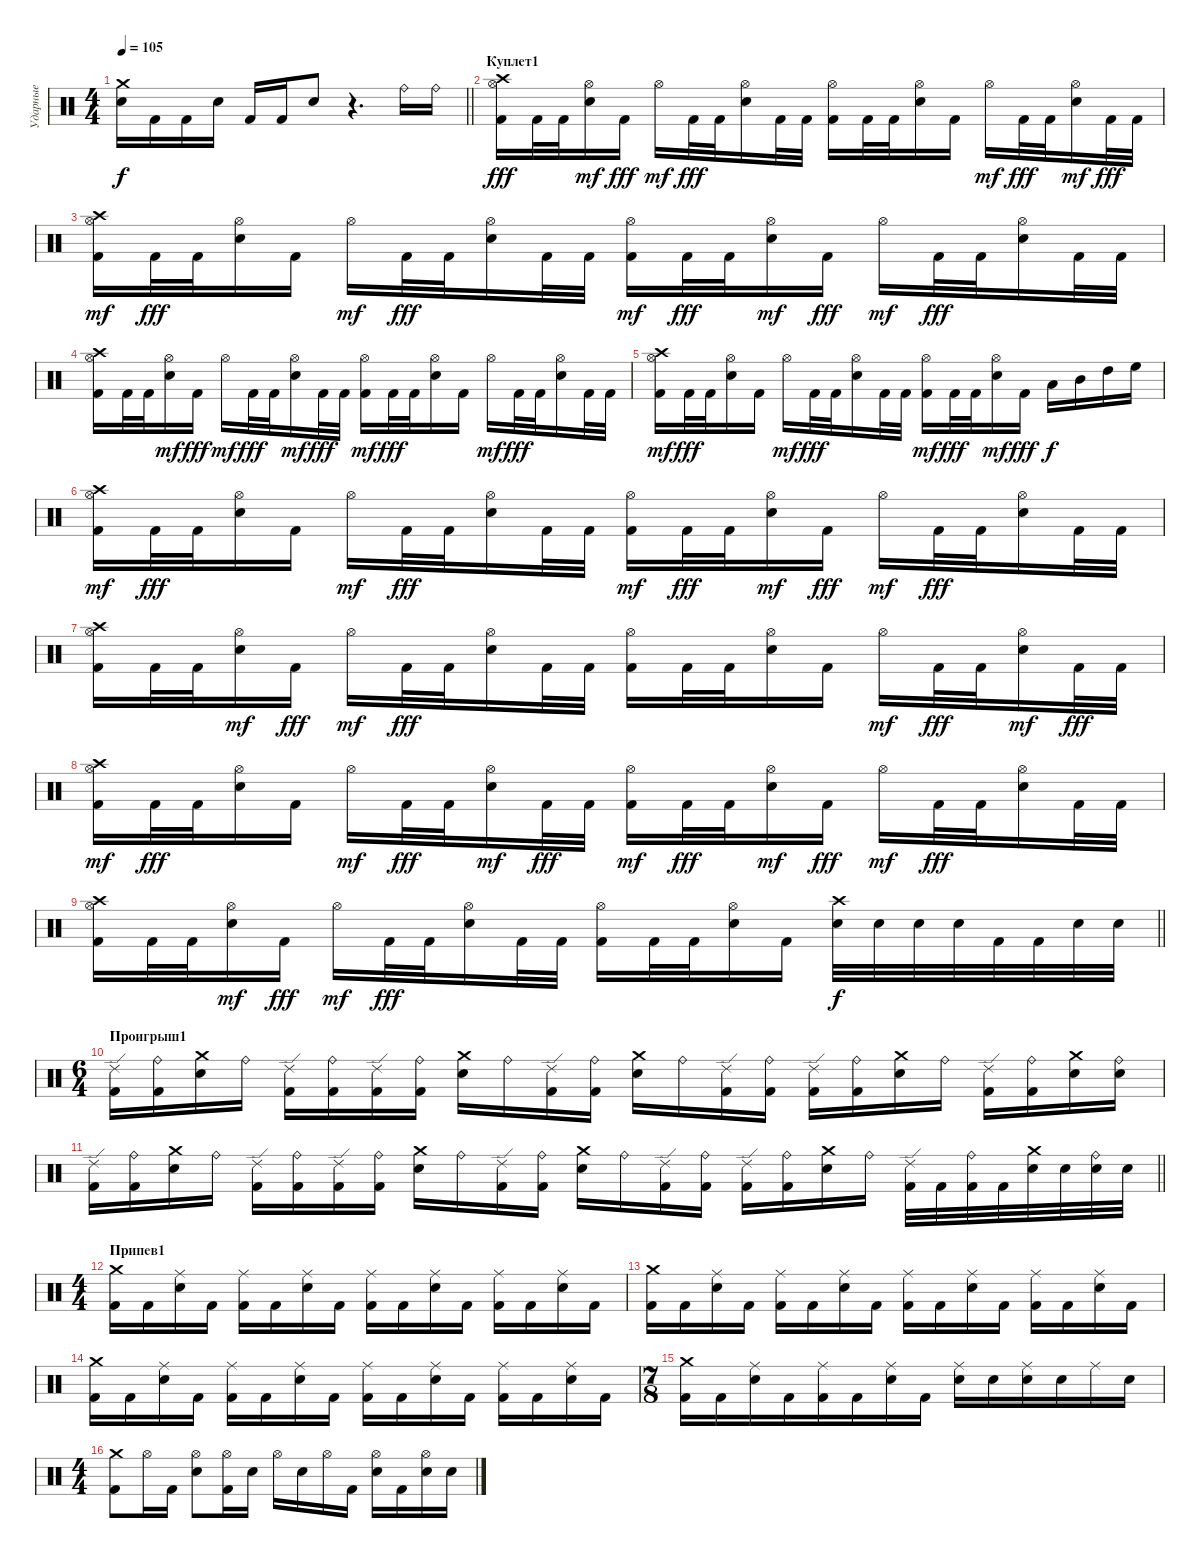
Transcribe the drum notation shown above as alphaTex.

\track ("Ударные" "Ударные") {instrument percussion}
\staff {score}
\articulation defaults
\ts (4 4)
\tempo 105
\clef neutral
\barLineRight lightlight
\ks c
("Crash medium (hit)" "Electric Snare (hit)").16{dy f} "Kick (hit) 2".16 "Kick (hit) 2".16 "Electric Snare (hit)".16 "Kick (hit) 2".16 "Kick (hit) 2".16 "Electric Snare (hit)".8 r.4{d} "Ride (bell)".16 "Ride (bell)".16 |
\section ("" "Куплет1")
("Hi-Hat (open)" "Crash high (hit)" "Kick (hit) 2").16{dy fff} "Kick (hit) 2".32 "Kick (hit) 2".32 ("Electric Snare (hit)" "Hi-Hat (open)").16{dy mf} "Kick (hit) 2".16{dy fff} "Hi-Hat (open)".16{dy mf} "Kick (hit) 2".32{dy fff} "Kick (hit) 2".32 ("Hi-Hat (open)" "Electric Snare (hit)").16 "Kick (hit) 2".32 "Kick (hit) 2".32 ("Hi-Hat (open)" "Kick (hit) 2").16 "Kick (hit) 2".32 "Kick (hit) 2".32 ("Hi-Hat (open)" "Electric Snare (hit)").16 "Kick (hit) 2".16 "Hi-Hat (open)".16{dy mf} "Kick (hit) 2".32{dy fff} "Kick (hit) 2".32 ("Electric Snare (hit)" "Hi-Hat (open)").16{dy mf} "Kick (hit) 2".32{dy fff} "Kick (hit) 2".32 |
("Kick (hit) 2" "Crash high (hit)" "Hi-Hat (open)").16{dy mf} "Kick (hit) 2".32{dy fff} "Kick (hit) 2".32 ("Hi-Hat (open)" "Electric Snare (hit)").16 "Kick (hit) 2".16 "Hi-Hat (open)".16{dy mf} "Kick (hit) 2".32{dy fff} "Kick (hit) 2".32 ("Hi-Hat (open)" "Electric Snare (hit)").16 "Kick (hit) 2".32 "Kick (hit) 2".32 ("Kick (hit) 2" "Hi-Hat (open)").16{dy mf} "Kick (hit) 2".32{dy fff} "Kick (hit) 2".32 ("Electric Snare (hit)" "Hi-Hat (open)").16{dy mf} "Kick (hit) 2".16{dy fff} "Hi-Hat (open)".16{dy mf} "Kick (hit) 2".32{dy fff} "Kick (hit) 2".32 ("Hi-Hat (open)" "Electric Snare (hit)").16 "Kick (hit) 2".32 "Kick (hit) 2".32 |
("Hi-Hat (open)" "Crash high (hit)" "Kick (hit) 2").16 "Kick (hit) 2".32 "Kick (hit) 2".32 ("Electric Snare (hit)" "Hi-Hat (open)").16{dy mf} "Kick (hit) 2".16{dy fff} "Hi-Hat (open)".16{dy mf} "Kick (hit) 2".32{dy fff} "Kick (hit) 2".32 ("Electric Snare (hit)" "Hi-Hat (open)").16{dy mf} "Kick (hit) 2".32{dy fff} "Kick (hit) 2".32 ("Kick (hit) 2" "Hi-Hat (open)").16{dy mf} "Kick (hit) 2".32{dy fff} "Kick (hit) 2".32 ("Hi-Hat (open)" "Electric Snare (hit)").16 "Kick (hit) 2".16 "Hi-Hat (open)".16{dy mf} "Kick (hit) 2".32{dy fff} "Kick (hit) 2".32 ("Hi-Hat (open)" "Electric Snare (hit)").16 "Kick (hit) 2".32 "Kick (hit) 2".32 |
("Kick (hit) 2" "Crash high (hit)" "Hi-Hat (open)").16{dy mf} "Kick (hit) 2".32{dy fff} "Kick (hit) 2".32 ("Hi-Hat (open)" "Electric Snare (hit)").16 "Kick (hit) 2".16 "Hi-Hat (open)".16{dy mf} "Kick (hit) 2".32{dy fff} "Kick (hit) 2".32 ("Hi-Hat (open)" "Electric Snare (hit)").16 "Kick (hit) 2".32 "Kick (hit) 2".32 ("Kick (hit) 2" "Hi-Hat (open)").16{dy mf} "Kick (hit) 2".32{dy fff} "Kick (hit) 2".32 ("Electric Snare (hit)" "Hi-Hat (open)").16{dy mf} "Kick (hit) 2".16{dy fff} "Low Tom (hit)".16{dy f} "Mid Tom (hit)".16 "High Tom (hit)".16 "High Floor Tom (hit)".16 |
("Kick (hit) 2" "Crash high (hit)" "Hi-Hat (open)").16{dy mf} "Kick (hit) 2".32{dy fff} "Kick (hit) 2".32 ("Hi-Hat (open)" "Electric Snare (hit)").16 "Kick (hit) 2".16 "Hi-Hat (open)".16{dy mf} "Kick (hit) 2".32{dy fff} "Kick (hit) 2".32 ("Hi-Hat (open)" "Electric Snare (hit)").16 "Kick (hit) 2".32 "Kick (hit) 2".32 ("Kick (hit) 2" "Hi-Hat (open)").16{dy mf} "Kick (hit) 2".32{dy fff} "Kick (hit) 2".32 ("Electric Snare (hit)" "Hi-Hat (open)").16{dy mf} "Kick (hit) 2".16{dy fff} "Hi-Hat (open)".16{dy mf} "Kick (hit) 2".32{dy fff} "Kick (hit) 2".32 ("Hi-Hat (open)" "Electric Snare (hit)").16 "Kick (hit) 2".32 "Kick (hit) 2".32 |
("Hi-Hat (open)" "Crash high (hit)" "Kick (hit) 2").16 "Kick (hit) 2".32 "Kick (hit) 2".32 ("Electric Snare (hit)" "Hi-Hat (open)").16{dy mf} "Kick (hit) 2".16{dy fff} "Hi-Hat (open)".16{dy mf} "Kick (hit) 2".32{dy fff} "Kick (hit) 2".32 ("Hi-Hat (open)" "Electric Snare (hit)").16 "Kick (hit) 2".32 "Kick (hit) 2".32 ("Hi-Hat (open)" "Kick (hit) 2").16 "Kick (hit) 2".32 "Kick (hit) 2".32 ("Hi-Hat (open)" "Electric Snare (hit)").16 "Kick (hit) 2".16 "Hi-Hat (open)".16{dy mf} "Kick (hit) 2".32{dy fff} "Kick (hit) 2".32 ("Electric Snare (hit)" "Hi-Hat (open)").16{dy mf} "Kick (hit) 2".32{dy fff} "Kick (hit) 2".32 |
("Kick (hit) 2" "Hi-Hat (open)" "Crash high (hit)").16{dy mf} "Kick (hit) 2".32{dy fff} "Kick (hit) 2".32 ("Hi-Hat (open)" "Electric Snare (hit)").16 "Kick (hit) 2".16 "Hi-Hat (open)".16{dy mf} "Kick (hit) 2".32{dy fff} "Kick (hit) 2".32 ("Electric Snare (hit)" "Hi-Hat (open)").16{dy mf} "Kick (hit) 2".32{dy fff} "Kick (hit) 2".32 ("Kick (hit) 2" "Hi-Hat (open)").16{dy mf} "Kick (hit) 2".32{dy fff} "Kick (hit) 2".32 ("Electric Snare (hit)" "Hi-Hat (open)").16{dy mf} "Kick (hit) 2".16{dy fff} "Hi-Hat (open)".16{dy mf} "Kick (hit) 2".32{dy fff} "Kick (hit) 2".32 ("Hi-Hat (open)" "Electric Snare (hit)").16 "Kick (hit) 2".32 "Kick (hit) 2".32 |
\barLineRight lightlight
("Hi-Hat (open)" "Crash high (hit)" "Kick (hit) 2").16 "Kick (hit) 2".32 "Kick (hit) 2".32 ("Electric Snare (hit)" "Hi-Hat (open)").16{dy mf} "Kick (hit) 2".16{dy fff} "Hi-Hat (open)".16{dy mf} "Kick (hit) 2".32{dy fff} "Kick (hit) 2".32 ("Hi-Hat (open)" "Electric Snare (hit)").16 "Kick (hit) 2".32 "Kick (hit) 2".32 ("Hi-Hat (open)" "Kick (hit) 2").16 "Kick (hit) 2".32 "Kick (hit) 2".32 ("Hi-Hat (open)" "Electric Snare (hit)").16 "Kick (hit) 2".16 ("Crash high (hit)" "Electric Snare (hit)").32{dy f} "Electric Snare (hit)".32 "Electric Snare (hit)".32 "Electric Snare (hit)".32 "Kick (hit) 2".32 "Kick (hit) 2".32 "Electric Snare (hit)".32 "Electric Snare (hit)".32 |
\ts (6 4)
\section ("" "Проигрыш1")
("Ride (edge) 2" "Kick (hit) 2").16 ("Ride (bell)" "Kick (hit) 2").16 ("Crash medium (hit)" "Electric Snare (hit)").16 "Ride (bell)".16 ("Ride (edge) 2" "Kick (hit) 2").16 ("Ride (bell)" "Kick (hit) 2").16 ("Ride (edge) 2" "Kick (hit) 2").16 ("Ride (bell)" "Kick (hit) 2").16 ("Crash medium (hit)" "Electric Snare (hit)").16 "Ride (bell)".16 ("Ride (edge) 2" "Kick (hit) 2").16 ("Ride (bell)" "Kick (hit) 2").16 ("Crash medium (hit)" "Electric Snare (hit)").16 "Ride (bell)".16 ("Ride (edge) 2" "Kick (hit) 2").16 ("Ride (bell)" "Kick (hit) 2").16 ("Ride (edge) 2" "Kick (hit) 2").16 ("Ride (bell)" "Kick (hit) 2").16 ("Crash medium (hit)" "Electric Snare (hit)").16 "Ride (bell)".16 ("Ride (edge) 2" "Kick (hit) 2").16 ("Ride (bell)" "Kick (hit) 2").16 ("Crash medium (hit)" "Electric Snare (hit)").16 ("Ride (bell)" "Electric Snare (hit)").16 |
\barLineRight lightlight
("Ride (edge) 2" "Kick (hit) 2").16 ("Ride (bell)" "Kick (hit) 2").16 ("Crash medium (hit)" "Electric Snare (hit)").16 "Ride (bell)".16 ("Ride (edge) 2" "Kick (hit) 2").16 ("Ride (bell)" "Kick (hit) 2").16 ("Ride (edge) 2" "Kick (hit) 2").16 ("Ride (bell)" "Kick (hit) 2").16 ("Crash medium (hit)" "Electric Snare (hit)").16 "Ride (bell)".16 ("Ride (edge) 2" "Kick (hit) 2").16 ("Ride (bell)" "Kick (hit) 2").16 ("Crash medium (hit)" "Electric Snare (hit)").16 "Ride (bell)".16 ("Ride (edge) 2" "Kick (hit) 2").16 ("Ride (bell)" "Kick (hit) 2").16 ("Ride (edge) 2" "Kick (hit) 2").16 ("Ride (bell)" "Kick (hit) 2").16 ("Crash medium (hit)" "Electric Snare (hit)").16 "Ride (bell)".16 ("Ride (edge) 2" "Kick (hit) 2").32 "Kick (hit) 2".32 ("Ride (bell)" "Kick (hit) 2").32 "Kick (hit) 2".32 ("Crash medium (hit)" "Electric Snare (hit)").32 "Electric Snare (hit)".32 ("Ride (bell)" "Electric Snare (hit)").32 "Electric Snare (hit)".32 |
\ts (4 4)
\section ("" "Припев1")
("Crash medium (hit)" "Kick (hit) 2").16 "Kick (hit) 2".16 ("Ride (middle)" "Electric Snare (hit)").16 "Kick (hit) 2".16 ("Ride (middle)" "Kick (hit) 2").16 "Kick (hit) 2".16 ("Ride (middle)" "Electric Snare (hit)").16 "Kick (hit) 2".16 ("Ride (middle)" "Kick (hit) 2").16 "Kick (hit) 2".16 ("Ride (middle)" "Electric Snare (hit)").16 "Kick (hit) 2".16 ("Ride (middle)" "Kick (hit) 2").16 "Kick (hit) 2".16 ("Ride (middle)" "Electric Snare (hit)").16 "Kick (hit) 2".16 |
("Crash medium (hit)" "Kick (hit) 2").16 "Kick (hit) 2".16 ("Ride (middle)" "Electric Snare (hit)").16 "Kick (hit) 2".16 ("Ride (middle)" "Kick (hit) 2").16 "Kick (hit) 2".16 ("Ride (middle)" "Electric Snare (hit)").16 "Kick (hit) 2".16 ("Ride (middle)" "Kick (hit) 2").16 "Kick (hit) 2".16 ("Ride (middle)" "Electric Snare (hit)").16 "Kick (hit) 2".16 ("Ride (middle)" "Kick (hit) 2").16 "Kick (hit) 2".16 ("Ride (middle)" "Electric Snare (hit)").16 "Kick (hit) 2".16 |
("Crash medium (hit)" "Kick (hit) 2").16 "Kick (hit) 2".16 ("Ride (middle)" "Electric Snare (hit)").16 "Kick (hit) 2".16 ("Ride (middle)" "Kick (hit) 2").16 "Kick (hit) 2".16 ("Ride (middle)" "Electric Snare (hit)").16 "Kick (hit) 2".16 ("Ride (middle)" "Kick (hit) 2").16 "Kick (hit) 2".16 ("Ride (middle)" "Electric Snare (hit)").16 "Kick (hit) 2".16 ("Ride (middle)" "Kick (hit) 2").16 "Kick (hit) 2".16 ("Ride (middle)" "Electric Snare (hit)").16 "Kick (hit) 2".16 |
\ts (7 8)
("Crash medium (hit)" "Kick (hit) 2").16 "Kick (hit) 2".16 ("Ride (middle)" "Electric Snare (hit)").16 "Kick (hit) 2".16 ("Ride (middle)" "Kick (hit) 2").16 "Kick (hit) 2".16 ("Ride (middle)" "Electric Snare (hit)").16 "Kick (hit) 2".16 ("Ride (middle)" "Electric Snare (hit)").16 "Electric Snare (hit)".16 ("Ride (middle)" "Electric Snare (hit)").16 "Electric Snare (hit)".16 "Ride (middle)".16 "Electric Snare (hit)".16 |
\ts (4 4)
("Crash medium (hit)" "Kick (hit) 2").8 "Hi-Hat (open)".16 "Kick (hit) 2".16 ("Hi-Hat (open)" "Electric Snare (hit)").8 ("Hi-Hat (open)" "Kick (hit) 2").16 "Electric Snare (hit)".16 "Hi-Hat (open)".16 "Electric Snare (hit)".16 "Hi-Hat (open)".16 "Kick (hit) 2".16 ("Hi-Hat (open)" "Electric Snare (hit)").16 "Kick (hit) 2".16 ("Hi-Hat (open)" "Electric Snare (hit)").16 "Electric Snare (hit)".16
